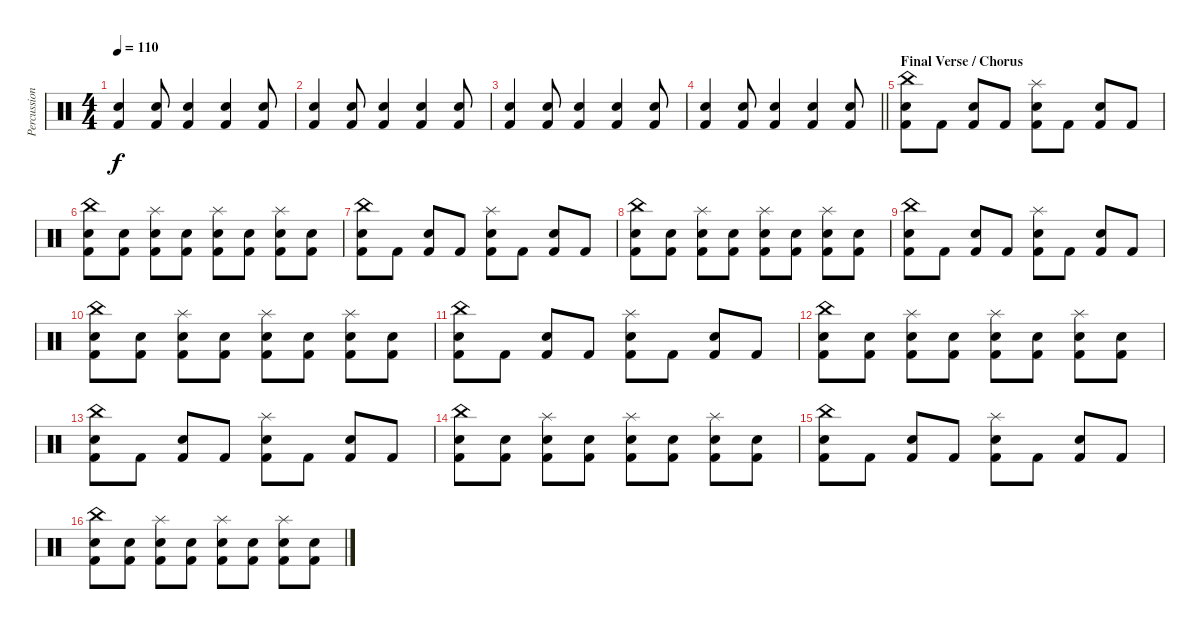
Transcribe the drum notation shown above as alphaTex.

\track ("Percussion" "Percussion") {instrument percussion}
\staff {score}
\articulation defaults
\ts (4 4)
\tempo 110
\clef neutral
\ks c
("Electric Snare (hit)" "Kick (hit) 2").4{dy f} ("Electric Snare (hit)" "Kick (hit) 2").8 ("Electric Snare (hit)" "Kick (hit) 2").4 ("Electric Snare (hit)" "Kick (hit) 2").4 ("Electric Snare (hit)" "Kick (hit) 2").8 |
("Electric Snare (hit)" "Kick (hit) 2").4 ("Electric Snare (hit)" "Kick (hit) 2").8 ("Electric Snare (hit)" "Kick (hit) 2").4 ("Electric Snare (hit)" "Kick (hit) 2").4 ("Electric Snare (hit)" "Kick (hit) 2").8 |
("Electric Snare (hit)" "Kick (hit) 2").4 ("Electric Snare (hit)" "Kick (hit) 2").8 ("Electric Snare (hit)" "Kick (hit) 2").4 ("Electric Snare (hit)" "Kick (hit) 2").4 ("Electric Snare (hit)" "Kick (hit) 2").8 |
\barLineRight lightlight
("Electric Snare (hit)" "Kick (hit) 2").4 ("Electric Snare (hit)" "Kick (hit) 2").8 ("Electric Snare (hit)" "Kick (hit) 2").4 ("Electric Snare (hit)" "Kick (hit) 2").4 ("Electric Snare (hit)" "Kick (hit) 2").8 |
\section ("" "Final Verse / Chorus")
("China (hit)" "Electric Snare (hit)" "Kick (hit) 2").8 "Kick (hit) 2".8 ("Electric Snare (hit)" "Kick (hit) 2").8 "Kick (hit) 2".8 ("Splash (hit)" "Electric Snare (hit)" "Kick (hit) 2").8 "Kick (hit) 2".8 ("Electric Snare (hit)" "Kick (hit) 2").8 "Kick (hit) 2".8 |
("China (hit)" "Electric Snare (hit)" "Kick (hit) 2").8 ("Electric Snare (hit)" "Kick (hit) 2").8 ("Splash (hit)" "Electric Snare (hit)" "Kick (hit) 2").8 ("Electric Snare (hit)" "Kick (hit) 2").8 ("Splash (hit)" "Electric Snare (hit)" "Kick (hit) 2").8 ("Electric Snare (hit)" "Kick (hit) 2").8 ("Splash (hit)" "Electric Snare (hit)" "Kick (hit) 2").8 ("Electric Snare (hit)" "Kick (hit) 2").8 |
("China (hit)" "Electric Snare (hit)" "Kick (hit) 2").8 "Kick (hit) 2".8 ("Electric Snare (hit)" "Kick (hit) 2").8 "Kick (hit) 2".8 ("Splash (hit)" "Electric Snare (hit)" "Kick (hit) 2").8 "Kick (hit) 2".8 ("Electric Snare (hit)" "Kick (hit) 2").8 "Kick (hit) 2".8 |
("China (hit)" "Electric Snare (hit)" "Kick (hit) 2").8 ("Electric Snare (hit)" "Kick (hit) 2").8 ("Splash (hit)" "Electric Snare (hit)" "Kick (hit) 2").8 ("Electric Snare (hit)" "Kick (hit) 2").8 ("Splash (hit)" "Electric Snare (hit)" "Kick (hit) 2").8 ("Electric Snare (hit)" "Kick (hit) 2").8 ("Splash (hit)" "Electric Snare (hit)" "Kick (hit) 2").8 ("Electric Snare (hit)" "Kick (hit) 2").8 |
("China (hit)" "Electric Snare (hit)" "Kick (hit) 2").8 "Kick (hit) 2".8 ("Electric Snare (hit)" "Kick (hit) 2").8 "Kick (hit) 2".8 ("Splash (hit)" "Electric Snare (hit)" "Kick (hit) 2").8 "Kick (hit) 2".8 ("Electric Snare (hit)" "Kick (hit) 2").8 "Kick (hit) 2".8 |
("China (hit)" "Electric Snare (hit)" "Kick (hit) 2").8 ("Electric Snare (hit)" "Kick (hit) 2").8 ("Splash (hit)" "Electric Snare (hit)" "Kick (hit) 2").8 ("Electric Snare (hit)" "Kick (hit) 2").8 ("Splash (hit)" "Electric Snare (hit)" "Kick (hit) 2").8 ("Electric Snare (hit)" "Kick (hit) 2").8 ("Splash (hit)" "Electric Snare (hit)" "Kick (hit) 2").8 ("Electric Snare (hit)" "Kick (hit) 2").8 |
("China (hit)" "Electric Snare (hit)" "Kick (hit) 2").8 "Kick (hit) 2".8 ("Electric Snare (hit)" "Kick (hit) 2").8 "Kick (hit) 2".8 ("Splash (hit)" "Electric Snare (hit)" "Kick (hit) 2").8 "Kick (hit) 2".8 ("Electric Snare (hit)" "Kick (hit) 2").8 "Kick (hit) 2".8 |
("China (hit)" "Electric Snare (hit)" "Kick (hit) 2").8 ("Electric Snare (hit)" "Kick (hit) 2").8 ("Splash (hit)" "Electric Snare (hit)" "Kick (hit) 2").8 ("Electric Snare (hit)" "Kick (hit) 2").8 ("Splash (hit)" "Electric Snare (hit)" "Kick (hit) 2").8 ("Electric Snare (hit)" "Kick (hit) 2").8 ("Splash (hit)" "Electric Snare (hit)" "Kick (hit) 2").8 ("Electric Snare (hit)" "Kick (hit) 2").8 |
("China (hit)" "Electric Snare (hit)" "Kick (hit) 2").8 "Kick (hit) 2".8 ("Electric Snare (hit)" "Kick (hit) 2").8 "Kick (hit) 2".8 ("Splash (hit)" "Electric Snare (hit)" "Kick (hit) 2").8 "Kick (hit) 2".8 ("Electric Snare (hit)" "Kick (hit) 2").8 "Kick (hit) 2".8 |
("China (hit)" "Electric Snare (hit)" "Kick (hit) 2").8 ("Electric Snare (hit)" "Kick (hit) 2").8 ("Splash (hit)" "Electric Snare (hit)" "Kick (hit) 2").8 ("Electric Snare (hit)" "Kick (hit) 2").8 ("Splash (hit)" "Electric Snare (hit)" "Kick (hit) 2").8 ("Electric Snare (hit)" "Kick (hit) 2").8 ("Splash (hit)" "Electric Snare (hit)" "Kick (hit) 2").8 ("Electric Snare (hit)" "Kick (hit) 2").8 |
("China (hit)" "Electric Snare (hit)" "Kick (hit) 2").8 "Kick (hit) 2".8 ("Electric Snare (hit)" "Kick (hit) 2").8 "Kick (hit) 2".8 ("Splash (hit)" "Electric Snare (hit)" "Kick (hit) 2").8 "Kick (hit) 2".8 ("Electric Snare (hit)" "Kick (hit) 2").8 "Kick (hit) 2".8 |
("China (hit)" "Electric Snare (hit)" "Kick (hit) 2").8 ("Electric Snare (hit)" "Kick (hit) 2").8 ("Splash (hit)" "Electric Snare (hit)" "Kick (hit) 2").8 ("Electric Snare (hit)" "Kick (hit) 2").8 ("Splash (hit)" "Electric Snare (hit)" "Kick (hit) 2").8 ("Electric Snare (hit)" "Kick (hit) 2").8 ("Splash (hit)" "Electric Snare (hit)" "Kick (hit) 2").8 ("Electric Snare (hit)" "Kick (hit) 2").8
